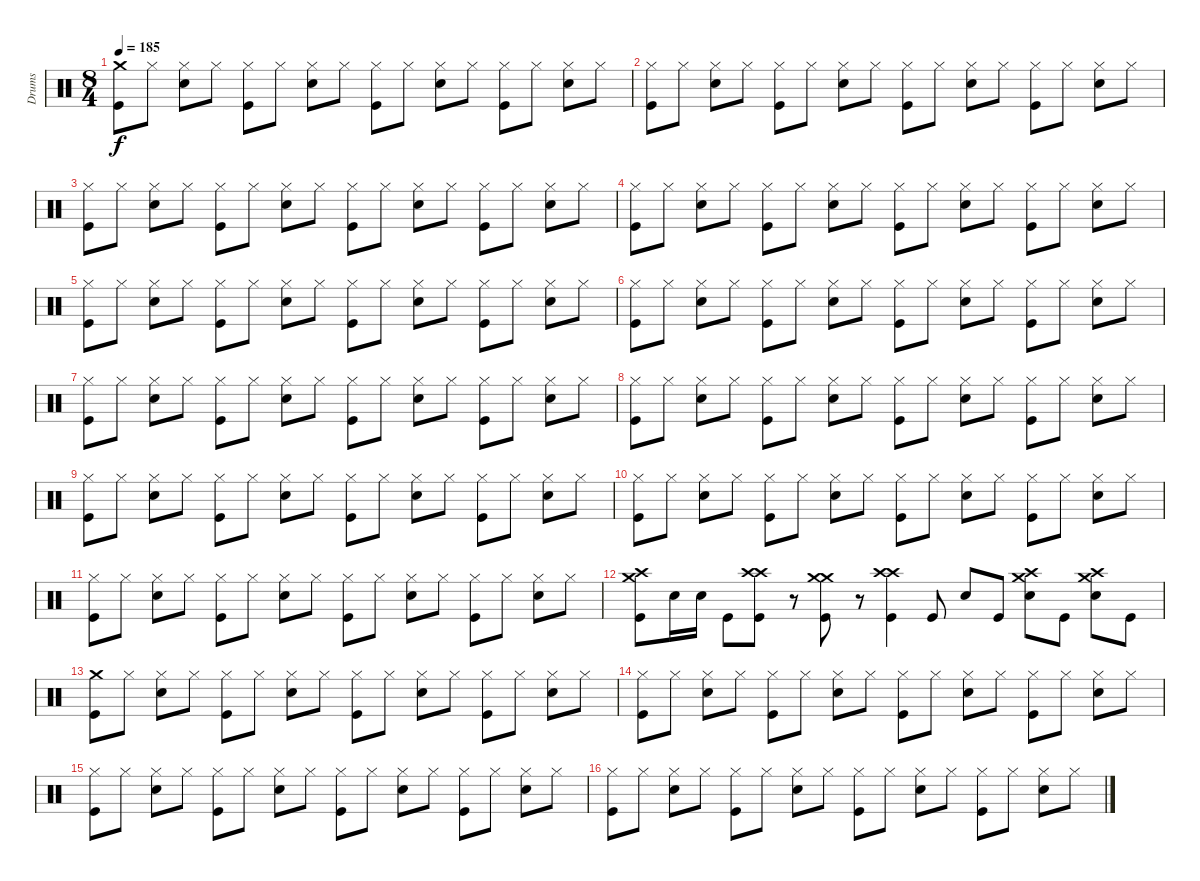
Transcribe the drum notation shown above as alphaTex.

\track ("Drums" "Drums") {instrument percussion}
\staff {score}
\articulation defaults
\ts (8 4)
\tempo 185
\clef neutral
\ks c
("Crash medium (hit)" "Kick (hit)").8{dy f} "Hi-Hat (closed)".8 ("Hi-Hat (closed)" "Snare (hit) 2").8 "Hi-Hat (closed)".8 ("Hi-Hat (closed)" "Kick (hit)").8 "Hi-Hat (closed)".8 ("Hi-Hat (closed)" "Snare (hit) 2").8 "Hi-Hat (closed)".8 ("Hi-Hat (closed)" "Kick (hit)").8 "Hi-Hat (closed)".8 ("Hi-Hat (closed)" "Snare (hit) 2").8 "Hi-Hat (closed)".8 ("Hi-Hat (closed)" "Kick (hit)").8 "Hi-Hat (closed)".8 ("Hi-Hat (closed)" "Snare (hit) 2").8 "Hi-Hat (closed)".8 |
("Hi-Hat (closed)" "Kick (hit)").8 "Hi-Hat (closed)".8 ("Hi-Hat (closed)" "Snare (hit) 2").8 "Hi-Hat (closed)".8 ("Hi-Hat (closed)" "Kick (hit)").8 "Hi-Hat (closed)".8 ("Hi-Hat (closed)" "Snare (hit) 2").8 "Hi-Hat (closed)".8 ("Hi-Hat (closed)" "Kick (hit)").8 "Hi-Hat (closed)".8 ("Hi-Hat (closed)" "Snare (hit) 2").8 "Hi-Hat (closed)".8 ("Hi-Hat (closed)" "Kick (hit)").8 "Hi-Hat (closed)".8 ("Hi-Hat (closed)" "Snare (hit) 2").8 "Hi-Hat (closed)".8 |
("Hi-Hat (closed)" "Kick (hit)").8 "Hi-Hat (closed)".8 ("Hi-Hat (closed)" "Snare (hit) 2").8 "Hi-Hat (closed)".8 ("Hi-Hat (closed)" "Kick (hit)").8 "Hi-Hat (closed)".8 ("Hi-Hat (closed)" "Snare (hit) 2").8 "Hi-Hat (closed)".8 ("Hi-Hat (closed)" "Kick (hit)").8 "Hi-Hat (closed)".8 ("Hi-Hat (closed)" "Snare (hit) 2").8 "Hi-Hat (closed)".8 ("Hi-Hat (closed)" "Kick (hit)").8 "Hi-Hat (closed)".8 ("Hi-Hat (closed)" "Snare (hit) 2").8 "Hi-Hat (closed)".8 |
("Hi-Hat (closed)" "Kick (hit)").8 "Hi-Hat (closed)".8 ("Hi-Hat (closed)" "Snare (hit) 2").8 "Hi-Hat (closed)".8 ("Hi-Hat (closed)" "Kick (hit)").8 "Hi-Hat (closed)".8 ("Hi-Hat (closed)" "Snare (hit) 2").8 "Hi-Hat (closed)".8 ("Hi-Hat (closed)" "Kick (hit)").8 "Hi-Hat (closed)".8 ("Hi-Hat (closed)" "Snare (hit) 2").8 "Hi-Hat (closed)".8 ("Hi-Hat (closed)" "Kick (hit)").8 "Hi-Hat (closed)".8 ("Hi-Hat (closed)" "Snare (hit) 2").8 "Hi-Hat (closed)".8 |
("Hi-Hat (closed)" "Kick (hit)").8 "Hi-Hat (closed)".8 ("Hi-Hat (closed)" "Snare (hit) 2").8 "Hi-Hat (closed)".8 ("Hi-Hat (closed)" "Kick (hit)").8 "Hi-Hat (closed)".8 ("Hi-Hat (closed)" "Snare (hit) 2").8 "Hi-Hat (closed)".8 ("Hi-Hat (closed)" "Kick (hit)").8 "Hi-Hat (closed)".8 ("Hi-Hat (closed)" "Snare (hit) 2").8 "Hi-Hat (closed)".8 ("Hi-Hat (closed)" "Kick (hit)").8 "Hi-Hat (closed)".8 ("Hi-Hat (closed)" "Snare (hit) 2").8 "Hi-Hat (closed)".8 |
("Hi-Hat (closed)" "Kick (hit)").8 "Hi-Hat (closed)".8 ("Hi-Hat (closed)" "Snare (hit) 2").8 "Hi-Hat (closed)".8 ("Hi-Hat (closed)" "Kick (hit)").8 "Hi-Hat (closed)".8 ("Hi-Hat (closed)" "Snare (hit) 2").8 "Hi-Hat (closed)".8 ("Hi-Hat (closed)" "Kick (hit)").8 "Hi-Hat (closed)".8 ("Hi-Hat (closed)" "Snare (hit) 2").8 "Hi-Hat (closed)".8 ("Hi-Hat (closed)" "Kick (hit)").8 "Hi-Hat (closed)".8 ("Hi-Hat (closed)" "Snare (hit) 2").8 "Hi-Hat (closed)".8 |
("Hi-Hat (closed)" "Kick (hit)").8 "Hi-Hat (closed)".8 ("Hi-Hat (closed)" "Snare (hit) 2").8 "Hi-Hat (closed)".8 ("Hi-Hat (closed)" "Kick (hit)").8 "Hi-Hat (closed)".8 ("Hi-Hat (closed)" "Snare (hit) 2").8 "Hi-Hat (closed)".8 ("Hi-Hat (closed)" "Kick (hit)").8 "Hi-Hat (closed)".8 ("Hi-Hat (closed)" "Snare (hit) 2").8 "Hi-Hat (closed)".8 ("Hi-Hat (closed)" "Kick (hit)").8 "Hi-Hat (closed)".8 ("Hi-Hat (closed)" "Snare (hit) 2").8 "Hi-Hat (closed)".8 |
("Hi-Hat (closed)" "Kick (hit)").8 "Hi-Hat (closed)".8 ("Hi-Hat (closed)" "Snare (hit) 2").8 "Hi-Hat (closed)".8 ("Hi-Hat (closed)" "Kick (hit)").8 "Hi-Hat (closed)".8 ("Hi-Hat (closed)" "Snare (hit) 2").8 "Hi-Hat (closed)".8 ("Hi-Hat (closed)" "Kick (hit)").8 "Hi-Hat (closed)".8 ("Hi-Hat (closed)" "Snare (hit) 2").8 "Hi-Hat (closed)".8 ("Hi-Hat (closed)" "Kick (hit)").8 "Hi-Hat (closed)".8 ("Hi-Hat (closed)" "Snare (hit) 2").8 "Hi-Hat (closed)".8 |
("Hi-Hat (closed)" "Kick (hit)").8 "Hi-Hat (closed)".8 ("Hi-Hat (closed)" "Snare (hit) 2").8 "Hi-Hat (closed)".8 ("Hi-Hat (closed)" "Kick (hit)").8 "Hi-Hat (closed)".8 ("Hi-Hat (closed)" "Snare (hit) 2").8 "Hi-Hat (closed)".8 ("Hi-Hat (closed)" "Kick (hit)").8 "Hi-Hat (closed)".8 ("Hi-Hat (closed)" "Snare (hit) 2").8 "Hi-Hat (closed)".8 ("Hi-Hat (closed)" "Kick (hit)").8 "Hi-Hat (closed)".8 ("Hi-Hat (closed)" "Snare (hit) 2").8 "Hi-Hat (closed)".8 |
("Hi-Hat (closed)" "Kick (hit)").8 "Hi-Hat (closed)".8 ("Hi-Hat (closed)" "Snare (hit) 2").8 "Hi-Hat (closed)".8 ("Hi-Hat (closed)" "Kick (hit)").8 "Hi-Hat (closed)".8 ("Hi-Hat (closed)" "Snare (hit) 2").8 "Hi-Hat (closed)".8 ("Hi-Hat (closed)" "Kick (hit)").8 "Hi-Hat (closed)".8 ("Hi-Hat (closed)" "Snare (hit) 2").8 "Hi-Hat (closed)".8 ("Hi-Hat (closed)" "Kick (hit)").8 "Hi-Hat (closed)".8 ("Hi-Hat (closed)" "Snare (hit) 2").8 "Hi-Hat (closed)".8 |
("Hi-Hat (closed)" "Kick (hit)").8 "Hi-Hat (closed)".8 ("Hi-Hat (closed)" "Snare (hit) 2").8 "Hi-Hat (closed)".8 ("Hi-Hat (closed)" "Kick (hit)").8 "Hi-Hat (closed)".8 ("Hi-Hat (closed)" "Snare (hit) 2").8 "Hi-Hat (closed)".8 ("Hi-Hat (closed)" "Kick (hit)").8 "Hi-Hat (closed)".8 ("Hi-Hat (closed)" "Snare (hit) 2").8 "Hi-Hat (closed)".8 ("Hi-Hat (closed)" "Kick (hit)").8 "Hi-Hat (closed)".8 ("Hi-Hat (closed)" "Snare (hit) 2").8 "Hi-Hat (closed)".8 |
("Crash medium (hit)" "Crash high (hit)" "Kick (hit)").8 "Snare (hit) 2".16 "Snare (hit) 2".16 "Kick (hit)".8 ("Crash high (hit)" "Crash high (hit)" "Kick (hit)").8 r.8 ("Crash medium (hit)" "Crash medium (hit)" "Kick (hit)").8 r.8 ("Crash high (hit)" "Crash high (hit)" "Kick (hit)").4 "Kick (hit)".8 "Snare (hit) 2".8 "Kick (hit)".8 ("Crash medium (hit)" "Crash high (hit)" "Snare (hit) 2").8 "Kick (hit)".8 ("Crash medium (hit)" "Crash high (hit)" "Snare (hit) 2").8 "Kick (hit)".8 |
("Crash medium (hit)" "Kick (hit)").8 "Hi-Hat (closed)".8 ("Hi-Hat (closed)" "Snare (hit) 2").8 "Hi-Hat (closed)".8 ("Hi-Hat (closed)" "Kick (hit)").8 "Hi-Hat (closed)".8 ("Hi-Hat (closed)" "Snare (hit) 2").8 "Hi-Hat (closed)".8 ("Hi-Hat (closed)" "Kick (hit)").8 "Hi-Hat (closed)".8 ("Hi-Hat (closed)" "Snare (hit) 2").8 "Hi-Hat (closed)".8 ("Hi-Hat (closed)" "Kick (hit)").8 "Hi-Hat (closed)".8 ("Hi-Hat (closed)" "Snare (hit) 2").8 "Hi-Hat (closed)".8 |
("Hi-Hat (closed)" "Kick (hit)").8 "Hi-Hat (closed)".8 ("Hi-Hat (closed)" "Snare (hit) 2").8 "Hi-Hat (closed)".8 ("Hi-Hat (closed)" "Kick (hit)").8 "Hi-Hat (closed)".8 ("Hi-Hat (closed)" "Snare (hit) 2").8 "Hi-Hat (closed)".8 ("Hi-Hat (closed)" "Kick (hit)").8 "Hi-Hat (closed)".8 ("Hi-Hat (closed)" "Snare (hit) 2").8 "Hi-Hat (closed)".8 ("Hi-Hat (closed)" "Kick (hit)").8 "Hi-Hat (closed)".8 ("Hi-Hat (closed)" "Snare (hit) 2").8 "Hi-Hat (closed)".8 |
("Hi-Hat (closed)" "Kick (hit)").8 "Hi-Hat (closed)".8 ("Hi-Hat (closed)" "Snare (hit) 2").8 "Hi-Hat (closed)".8 ("Hi-Hat (closed)" "Kick (hit)").8 "Hi-Hat (closed)".8 ("Hi-Hat (closed)" "Snare (hit) 2").8 "Hi-Hat (closed)".8 ("Hi-Hat (closed)" "Kick (hit)").8 "Hi-Hat (closed)".8 ("Hi-Hat (closed)" "Snare (hit) 2").8 "Hi-Hat (closed)".8 ("Hi-Hat (closed)" "Kick (hit)").8 "Hi-Hat (closed)".8 ("Hi-Hat (closed)" "Snare (hit) 2").8 "Hi-Hat (closed)".8 |
("Hi-Hat (closed)" "Kick (hit)").8 "Hi-Hat (closed)".8 ("Hi-Hat (closed)" "Snare (hit) 2").8 "Hi-Hat (closed)".8 ("Hi-Hat (closed)" "Kick (hit)").8 "Hi-Hat (closed)".8 ("Hi-Hat (closed)" "Snare (hit) 2").8 "Hi-Hat (closed)".8 ("Hi-Hat (closed)" "Kick (hit)").8 "Hi-Hat (closed)".8 ("Hi-Hat (closed)" "Snare (hit) 2").8 "Hi-Hat (closed)".8 ("Hi-Hat (closed)" "Kick (hit)").8 "Hi-Hat (closed)".8 ("Hi-Hat (closed)" "Snare (hit) 2").8 "Hi-Hat (closed)".8
